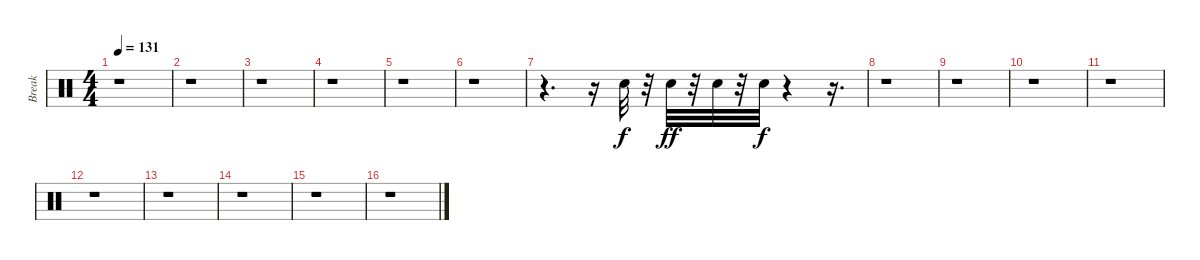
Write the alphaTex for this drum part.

\track ("Break" "Break") {instrument percussion}
\staff {score}
\articulation defaults
\ts (4 4)
\tempo 131
\clef neutral
\ks c
r.1{dy ff} |
r.1 |
r.1 |
r.1 |
r.1 |
r.1 |
r.4{d} r.16 "Snare (hit) 2".32{dy f} r.32 "Snare (hit) 2".32{dy ff} r.32 "Snare (hit) 2".32 r.32 "Snare (hit) 2".32{dy f} r.4 r.16{d} |
r.1 |
r.1 |
r.1 |
r.1 |
r.1 |
r.1 |
r.1 |
r.1 |
r.1
